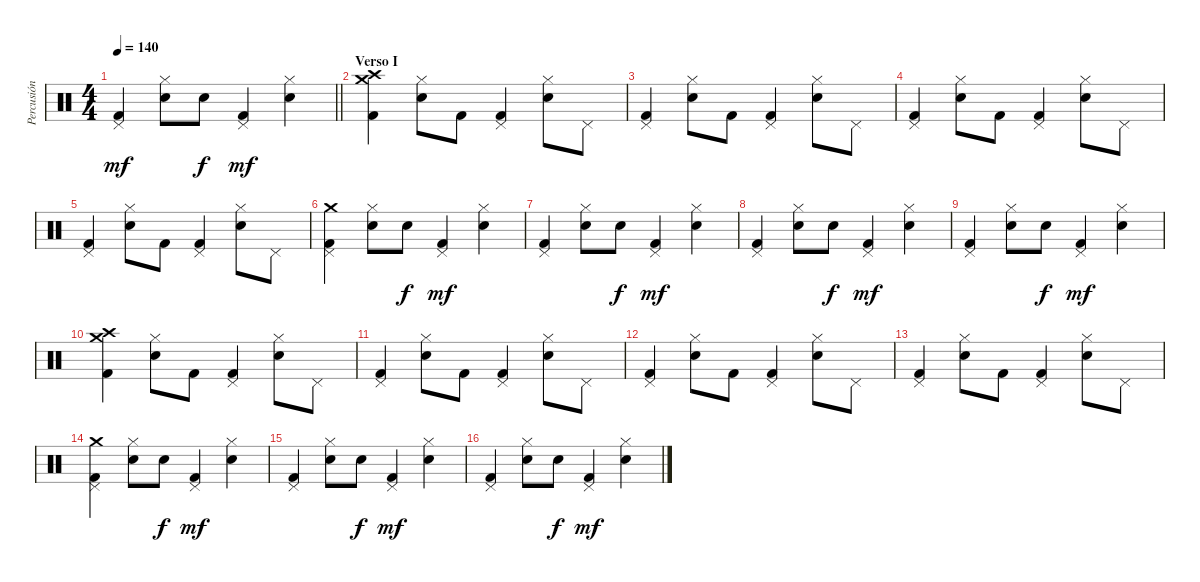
\track ("Percusión" "Percusión") {instrument percussion}
\staff {score}
\articulation defaults
\ts (4 4)
\tempo 140
\clef neutral
\barLineRight lightlight
\ks c
("Pedal Hi-Hat (hit)" "Kick (hit) 2").4{dy mf} ("Hi-Hat (closed)" "Electric Snare (hit)").8 "Electric Snare (hit)".8{dy f} ("Pedal Hi-Hat (hit)" "Kick (hit) 2").4{dy mf} ("Hi-Hat (closed)" "Electric Snare (hit)").4 |
\section ("" "Verso I")
("Crash high (hit)" "Crash medium (hit)" "Kick (hit) 2").4 ("Hi-Hat (closed)" "Electric Snare (hit)").8 "Kick (hit) 2".8 ("Pedal Hi-Hat (hit)" "Kick (hit) 2").4 ("Hi-Hat (closed)" "Electric Snare (hit)").8 "Pedal Hi-Hat (hit)".8 |
("Pedal Hi-Hat (hit)" "Kick (hit) 2").4 ("Hi-Hat (closed)" "Electric Snare (hit)").8 "Kick (hit) 2".8 ("Pedal Hi-Hat (hit)" "Kick (hit) 2").4 ("Hi-Hat (closed)" "Electric Snare (hit)").8 "Pedal Hi-Hat (hit)".8 |
("Pedal Hi-Hat (hit)" "Kick (hit) 2").4 ("Hi-Hat (closed)" "Electric Snare (hit)").8 "Kick (hit) 2".8 ("Pedal Hi-Hat (hit)" "Kick (hit) 2").4 ("Hi-Hat (closed)" "Electric Snare (hit)").8 "Pedal Hi-Hat (hit)".8 |
("Pedal Hi-Hat (hit)" "Kick (hit) 2").4 ("Hi-Hat (closed)" "Electric Snare (hit)").8 "Kick (hit) 2".8 ("Pedal Hi-Hat (hit)" "Kick (hit) 2").4 ("Hi-Hat (closed)" "Electric Snare (hit)").8 "Pedal Hi-Hat (hit)".8 |
("Pedal Hi-Hat (hit)" "Crash medium (hit)" "Kick (hit) 2").4 ("Hi-Hat (closed)" "Electric Snare (hit)").8 "Electric Snare (hit)".8{dy f} ("Pedal Hi-Hat (hit)" "Kick (hit) 2").4{dy mf} ("Hi-Hat (closed)" "Electric Snare (hit)").4 |
("Pedal Hi-Hat (hit)" "Kick (hit) 2").4 ("Hi-Hat (closed)" "Electric Snare (hit)").8 "Electric Snare (hit)".8{dy f} ("Pedal Hi-Hat (hit)" "Kick (hit) 2").4{dy mf} ("Hi-Hat (closed)" "Electric Snare (hit)").4 |
("Pedal Hi-Hat (hit)" "Kick (hit) 2").4 ("Hi-Hat (closed)" "Electric Snare (hit)").8 "Electric Snare (hit)".8{dy f} ("Pedal Hi-Hat (hit)" "Kick (hit) 2").4{dy mf} ("Hi-Hat (closed)" "Electric Snare (hit)").4 |
("Pedal Hi-Hat (hit)" "Kick (hit) 2").4 ("Hi-Hat (closed)" "Electric Snare (hit)").8 "Electric Snare (hit)".8{dy f} ("Pedal Hi-Hat (hit)" "Kick (hit) 2").4{dy mf} ("Hi-Hat (closed)" "Electric Snare (hit)").4 |
("Crash high (hit)" "Crash medium (hit)" "Kick (hit) 2").4 ("Hi-Hat (closed)" "Electric Snare (hit)").8 "Kick (hit) 2".8 ("Pedal Hi-Hat (hit)" "Kick (hit) 2").4 ("Hi-Hat (closed)" "Electric Snare (hit)").8 "Pedal Hi-Hat (hit)".8 |
("Pedal Hi-Hat (hit)" "Kick (hit) 2").4 ("Hi-Hat (closed)" "Electric Snare (hit)").8 "Kick (hit) 2".8 ("Pedal Hi-Hat (hit)" "Kick (hit) 2").4 ("Hi-Hat (closed)" "Electric Snare (hit)").8 "Pedal Hi-Hat (hit)".8 |
("Pedal Hi-Hat (hit)" "Kick (hit) 2").4 ("Hi-Hat (closed)" "Electric Snare (hit)").8 "Kick (hit) 2".8 ("Pedal Hi-Hat (hit)" "Kick (hit) 2").4 ("Hi-Hat (closed)" "Electric Snare (hit)").8 "Pedal Hi-Hat (hit)".8 |
("Pedal Hi-Hat (hit)" "Kick (hit) 2").4 ("Hi-Hat (closed)" "Electric Snare (hit)").8 "Kick (hit) 2".8 ("Pedal Hi-Hat (hit)" "Kick (hit) 2").4 ("Hi-Hat (closed)" "Electric Snare (hit)").8 "Pedal Hi-Hat (hit)".8 |
("Pedal Hi-Hat (hit)" "Crash medium (hit)" "Kick (hit) 2").4 ("Hi-Hat (closed)" "Electric Snare (hit)").8 "Electric Snare (hit)".8{dy f} ("Pedal Hi-Hat (hit)" "Kick (hit) 2").4{dy mf} ("Hi-Hat (closed)" "Electric Snare (hit)").4 |
("Pedal Hi-Hat (hit)" "Kick (hit) 2").4 ("Hi-Hat (closed)" "Electric Snare (hit)").8 "Electric Snare (hit)".8{dy f} ("Pedal Hi-Hat (hit)" "Kick (hit) 2").4{dy mf} ("Hi-Hat (closed)" "Electric Snare (hit)").4 |
("Pedal Hi-Hat (hit)" "Kick (hit) 2").4 ("Hi-Hat (closed)" "Electric Snare (hit)").8 "Electric Snare (hit)".8{dy f} ("Pedal Hi-Hat (hit)" "Kick (hit) 2").4{dy mf} ("Hi-Hat (closed)" "Electric Snare (hit)").4
